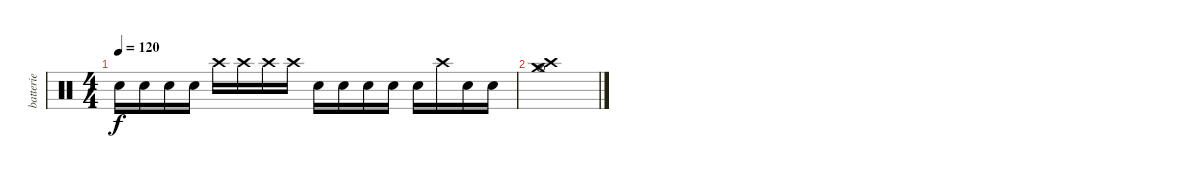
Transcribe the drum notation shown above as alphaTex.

\track ("batterie" "batterie") {instrument percussion}
\staff {score}
\articulation defaults
\ts (4 4)
\tempo 120
\clef neutral
\ks c "Electric Snare (hit)".16{dy f} "Electric Snare (hit)".16 "Electric Snare (hit)".16 "Electric Snare (hit)".16 "Crash high (hit)".16 "Crash high (hit)".16 "Crash high (hit)".16 "Crash high (hit)".16 "Snare (hit) 2".16 "Snare (hit) 2".16 "Snare (hit) 2".16 "Snare (hit) 2".16 "Electric Snare (hit)".16 "Crash high (hit)".16 "Snare (hit) 2".16 "Electric Snare (hit)".16
|
("Crash high (hit)" "Crash medium (hit)" "Hi-Hat (open)").1
